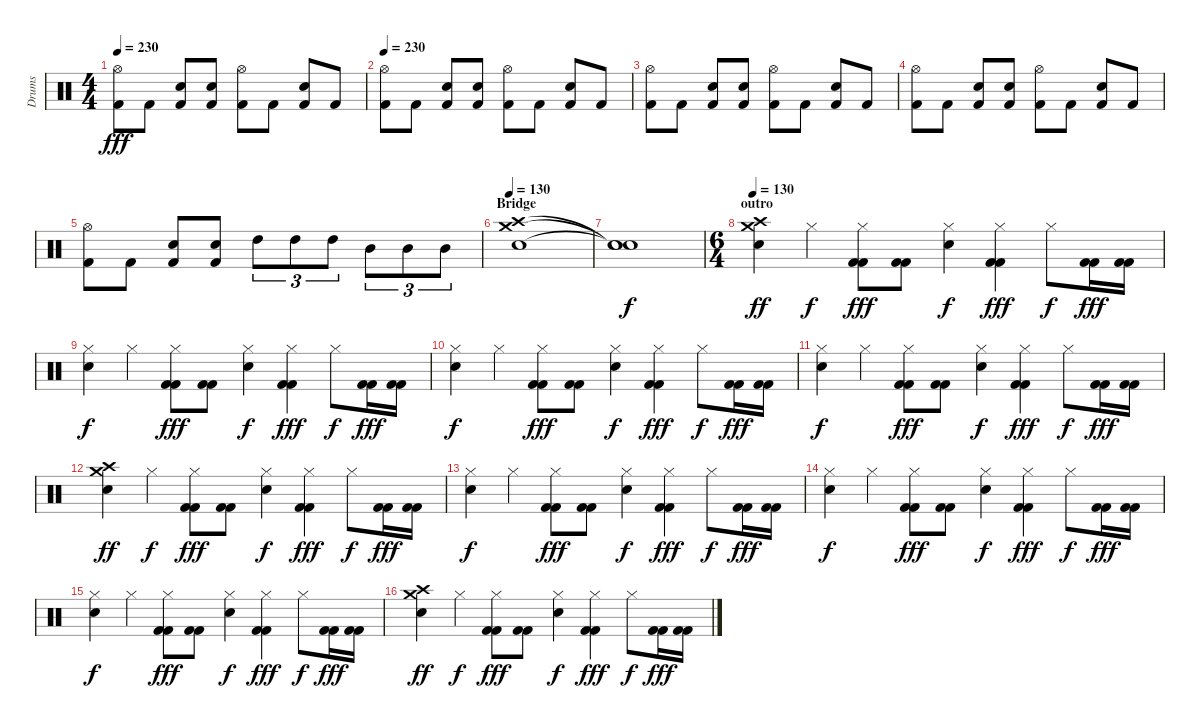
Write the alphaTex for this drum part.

\track ("Drums" "Drums") {instrument percussion}
\staff {score}
\articulation defaults
\ts (4 4)
\tempo 230
\clef neutral
\ks c
("Hi-Hat (open)" "Kick (hit) 2").8{dy fff} "Kick (hit) 2".8 ("Snare (hit) 2" "Kick (hit) 2").8 ("Snare (hit) 2" "Kick (hit) 2").8 ("Hi-Hat (open)" "Kick (hit) 2").8 "Kick (hit) 2".8 ("Snare (hit) 2" "Kick (hit) 2").8 "Kick (hit) 2".8 |
\tempo 230
("Hi-Hat (open)" "Kick (hit) 2").8 "Kick (hit) 2".8 ("Snare (hit) 2" "Kick (hit) 2").8 ("Snare (hit) 2" "Kick (hit) 2").8 ("Hi-Hat (open)" "Kick (hit) 2").8 "Kick (hit) 2".8 ("Snare (hit) 2" "Kick (hit) 2").8 "Kick (hit) 2".8 |
("Hi-Hat (open)" "Kick (hit) 2").8 "Kick (hit) 2".8 ("Snare (hit) 2" "Kick (hit) 2").8 ("Snare (hit) 2" "Kick (hit) 2").8 ("Hi-Hat (open)" "Kick (hit) 2").8 "Kick (hit) 2".8 ("Snare (hit) 2" "Kick (hit) 2").8 "Kick (hit) 2".8 |
("Hi-Hat (open)" "Kick (hit) 2").8 "Kick (hit) 2".8 ("Snare (hit) 2" "Kick (hit) 2").8 ("Snare (hit) 2" "Kick (hit) 2").8 ("Hi-Hat (open)" "Kick (hit) 2").8 "Kick (hit) 2".8 ("Snare (hit) 2" "Kick (hit) 2").8 "Kick (hit) 2".8 |
("Hi-Hat (open)" "Kick (hit) 2").8 "Kick (hit) 2".8 ("Snare (hit) 2" "Kick (hit) 2").8 ("Snare (hit) 2" "Kick (hit) 2").8 "High Tom (hit)".8{tu (3 2)} "High Tom (hit)".8{tu (3 2)} "High Tom (hit)".8{tu (3 2)} "Mid Tom (hit)".8{tu (3 2)} "Mid Tom (hit)".8{tu (3 2)} "Mid Tom (hit)".8{tu (3 2)} |
\section ("" "Bridge")
\tempo 130
("Electric Snare (hit)" "Crash medium (hit)" "Crash high (hit)").1 |
("Snare (hit)"{t} "Snare (hit)"{t} "Snare (hit)"{t}).1{dy f} |
\ts (6 4)
\section ("" "outro")
\tempo 130
("Crash high (hit)" "Crash medium (hit)" "Electric Snare (hit)").4{dy ff} "Hi-Hat (closed)".4{dy f} ("Hi-Hat (closed)" "Kick (hit) 2" "Kick (hit) 2").8{dy fff} ("Kick (hit) 2" "Kick (hit) 2").8 ("Hi-Hat (closed)" "Electric Snare (hit)").4{dy f} ("Hi-Hat (closed)" "Kick (hit) 2" "Kick (hit) 2").4{dy fff} "Hi-Hat (closed)".8{dy f} ("Kick (hit) 2" "Kick (hit) 2").16{dy fff} ("Kick (hit) 2" "Kick (hit) 2").16 |
("Hi-Hat (closed)" "Electric Snare (hit)").4{dy f} "Hi-Hat (closed)".4 ("Hi-Hat (closed)" "Kick (hit) 2" "Kick (hit) 2").8{dy fff} ("Kick (hit) 2" "Kick (hit) 2").8 ("Hi-Hat (closed)" "Electric Snare (hit)").4{dy f} ("Hi-Hat (closed)" "Kick (hit) 2" "Kick (hit) 2").4{dy fff} "Hi-Hat (closed)".8{dy f} ("Kick (hit) 2" "Kick (hit) 2").16{dy fff} ("Kick (hit) 2" "Kick (hit) 2").16 |
("Hi-Hat (closed)" "Electric Snare (hit)").4{dy f} "Hi-Hat (closed)".4 ("Hi-Hat (closed)" "Kick (hit) 2" "Kick (hit) 2").8{dy fff} ("Kick (hit) 2" "Kick (hit) 2").8 ("Hi-Hat (closed)" "Electric Snare (hit)").4{dy f} ("Hi-Hat (closed)" "Kick (hit) 2" "Kick (hit) 2").4{dy fff} "Hi-Hat (closed)".8{dy f} ("Kick (hit) 2" "Kick (hit) 2").16{dy fff} ("Kick (hit) 2" "Kick (hit) 2").16 |
("Hi-Hat (closed)" "Electric Snare (hit)").4{dy f} "Hi-Hat (closed)".4 ("Hi-Hat (closed)" "Kick (hit) 2" "Kick (hit) 2").8{dy fff} ("Kick (hit) 2" "Kick (hit) 2").8 ("Hi-Hat (closed)" "Electric Snare (hit)").4{dy f} ("Hi-Hat (closed)" "Kick (hit) 2" "Kick (hit) 2").4{dy fff} "Hi-Hat (closed)".8{dy f} ("Kick (hit) 2" "Kick (hit) 2").16{dy fff} ("Kick (hit) 2" "Kick (hit) 2").16 |
("Crash high (hit)" "Crash medium (hit)" "Electric Snare (hit)").4{dy ff} "Hi-Hat (closed)".4{dy f} ("Hi-Hat (closed)" "Kick (hit) 2" "Kick (hit) 2").8{dy fff} ("Kick (hit) 2" "Kick (hit) 2").8 ("Hi-Hat (closed)" "Electric Snare (hit)").4{dy f} ("Hi-Hat (closed)" "Kick (hit) 2" "Kick (hit) 2").4{dy fff} "Hi-Hat (closed)".8{dy f} ("Kick (hit) 2" "Kick (hit) 2").16{dy fff} ("Kick (hit) 2" "Kick (hit) 2").16 |
("Hi-Hat (closed)" "Electric Snare (hit)").4{dy f} "Hi-Hat (closed)".4 ("Hi-Hat (closed)" "Kick (hit) 2" "Kick (hit) 2").8{dy fff} ("Kick (hit) 2" "Kick (hit) 2").8 ("Hi-Hat (closed)" "Electric Snare (hit)").4{dy f} ("Hi-Hat (closed)" "Kick (hit) 2" "Kick (hit) 2").4{dy fff} "Hi-Hat (closed)".8{dy f} ("Kick (hit) 2" "Kick (hit) 2").16{dy fff} ("Kick (hit) 2" "Kick (hit) 2").16 |
("Hi-Hat (closed)" "Electric Snare (hit)").4{dy f} "Hi-Hat (closed)".4 ("Hi-Hat (closed)" "Kick (hit) 2" "Kick (hit) 2").8{dy fff} ("Kick (hit) 2" "Kick (hit) 2").8 ("Hi-Hat (closed)" "Electric Snare (hit)").4{dy f} ("Hi-Hat (closed)" "Kick (hit) 2" "Kick (hit) 2").4{dy fff} "Hi-Hat (closed)".8{dy f} ("Kick (hit) 2" "Kick (hit) 2").16{dy fff} ("Kick (hit) 2" "Kick (hit) 2").16 |
("Hi-Hat (closed)" "Electric Snare (hit)").4{dy f} "Hi-Hat (closed)".4 ("Hi-Hat (closed)" "Kick (hit) 2" "Kick (hit) 2").8{dy fff} ("Kick (hit) 2" "Kick (hit) 2").8 ("Hi-Hat (closed)" "Electric Snare (hit)").4{dy f} ("Hi-Hat (closed)" "Kick (hit) 2" "Kick (hit) 2").4{dy fff} "Hi-Hat (closed)".8{dy f} ("Kick (hit) 2" "Kick (hit) 2").16{dy fff} ("Kick (hit) 2" "Kick (hit) 2").16 |
("Crash high (hit)" "Crash medium (hit)" "Electric Snare (hit)").4{dy ff} "Hi-Hat (closed)".4{dy f} ("Hi-Hat (closed)" "Kick (hit) 2" "Kick (hit) 2").8{dy fff} ("Kick (hit) 2" "Kick (hit) 2").8 ("Hi-Hat (closed)" "Electric Snare (hit)").4{dy f} ("Hi-Hat (closed)" "Kick (hit) 2" "Kick (hit) 2").4{dy fff} "Hi-Hat (closed)".8{dy f} ("Kick (hit) 2" "Kick (hit) 2").16{dy fff} ("Kick (hit) 2" "Kick (hit) 2").16
